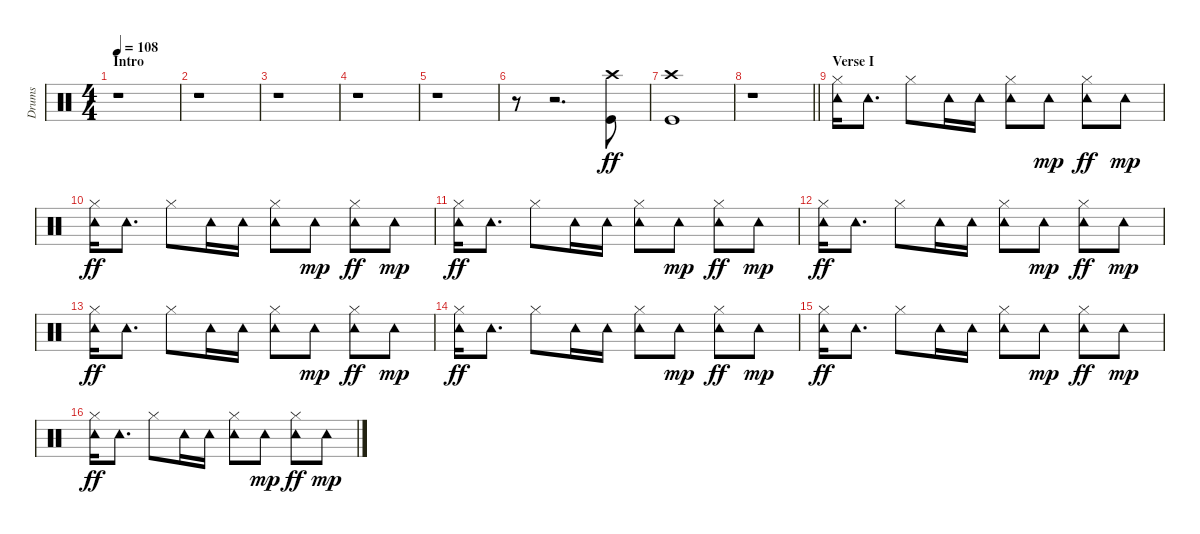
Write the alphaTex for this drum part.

\track ("Drums" "Drums") {instrument percussion}
\staff {score}
\articulation defaults
\ts (4 4)
\section ("" "Intro")
\tempo 108
\clef neutral
\ks c
r.1{dy ff} |
r.1 |
r.1 |
r.1 |
r.1 |
r.8 r.2{d} ("Crash high (hit)" "Kick (hit)").8 |
("Crash high (hit)" "Kick (hit)").1 |
\barLineRight lightlight
r.1 |
\section ("" "Verse I")
("Tambourine (hit)" "Hi-Hat (closed)").16 "Tambourine (hit)".8{d} "Hi-Hat (closed)".8 "Tambourine (hit)".16 "Tambourine (hit)".16 ("Tambourine (hit)" "Hi-Hat (closed)").8 "Tambourine (hit)".8{dy mp} ("Tambourine (hit)" "Hi-Hat (closed)").8{dy ff} "Tambourine (hit)".8{dy mp} |
("Tambourine (hit)" "Hi-Hat (closed)").16{dy ff} "Tambourine (hit)".8{d} "Hi-Hat (closed)".8 "Tambourine (hit)".16 "Tambourine (hit)".16 ("Tambourine (hit)" "Hi-Hat (closed)").8 "Tambourine (hit)".8{dy mp} ("Tambourine (hit)" "Hi-Hat (closed)").8{dy ff} "Tambourine (hit)".8{dy mp} |
("Tambourine (hit)" "Hi-Hat (closed)").16{dy ff} "Tambourine (hit)".8{d} "Hi-Hat (closed)".8 "Tambourine (hit)".16 "Tambourine (hit)".16 ("Tambourine (hit)" "Hi-Hat (closed)").8 "Tambourine (hit)".8{dy mp} ("Tambourine (hit)" "Hi-Hat (closed)").8{dy ff} "Tambourine (hit)".8{dy mp} |
("Tambourine (hit)" "Hi-Hat (closed)").16{dy ff} "Tambourine (hit)".8{d} "Hi-Hat (closed)".8 "Tambourine (hit)".16 "Tambourine (hit)".16 ("Tambourine (hit)" "Hi-Hat (closed)").8 "Tambourine (hit)".8{dy mp} ("Tambourine (hit)" "Hi-Hat (closed)").8{dy ff} "Tambourine (hit)".8{dy mp} |
("Tambourine (hit)" "Hi-Hat (closed)").16{dy ff} "Tambourine (hit)".8{d} "Hi-Hat (closed)".8 "Tambourine (hit)".16 "Tambourine (hit)".16 ("Tambourine (hit)" "Hi-Hat (closed)").8 "Tambourine (hit)".8{dy mp} ("Tambourine (hit)" "Hi-Hat (closed)").8{dy ff} "Tambourine (hit)".8{dy mp} |
("Tambourine (hit)" "Hi-Hat (closed)").16{dy ff} "Tambourine (hit)".8{d} "Hi-Hat (closed)".8 "Tambourine (hit)".16 "Tambourine (hit)".16 ("Tambourine (hit)" "Hi-Hat (closed)").8 "Tambourine (hit)".8{dy mp} ("Tambourine (hit)" "Hi-Hat (closed)").8{dy ff} "Tambourine (hit)".8{dy mp} |
("Tambourine (hit)" "Hi-Hat (closed)").16{dy ff} "Tambourine (hit)".8{d} "Hi-Hat (closed)".8 "Tambourine (hit)".16 "Tambourine (hit)".16 ("Tambourine (hit)" "Hi-Hat (closed)").8 "Tambourine (hit)".8{dy mp} ("Tambourine (hit)" "Hi-Hat (closed)").8{dy ff} "Tambourine (hit)".8{dy mp} |
("Tambourine (hit)" "Hi-Hat (closed)").16{dy ff} "Tambourine (hit)".8{d} "Hi-Hat (closed)".8 "Tambourine (hit)".16 "Tambourine (hit)".16 ("Tambourine (hit)" "Hi-Hat (closed)").8 "Tambourine (hit)".8{dy mp} ("Tambourine (hit)" "Hi-Hat (closed)").8{dy ff} "Tambourine (hit)".8{dy mp}
